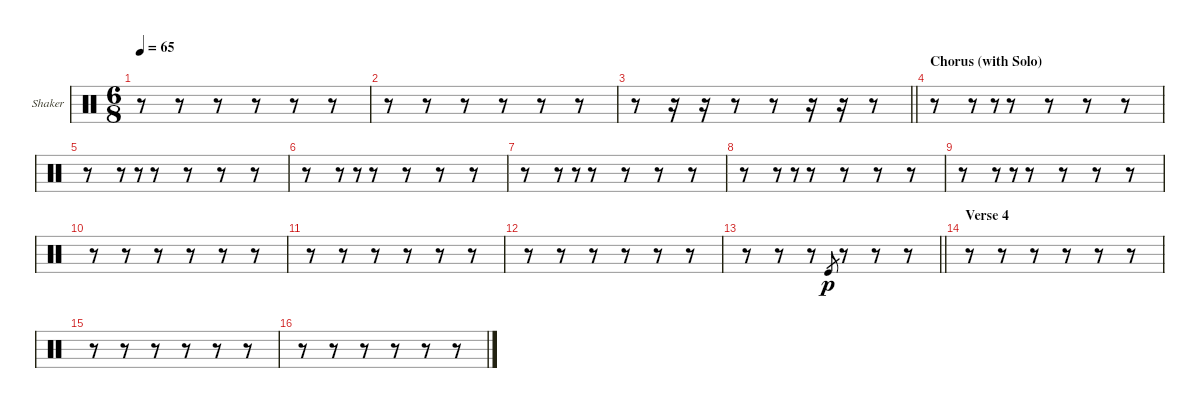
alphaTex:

\bracketExtendMode groupsimilarinstruments
\firstSystemTrackNameOrientation horizontal
\otherSystemsTrackNameOrientation horizontal
\track ("Shaker" "Shaker") {instrument percussion}
\staff {score}
\articulation defaults
\ts (6 8)
\tempo 65
\clef neutral
\ks c
r.8{dy p} r.8 r.8 r.8 r.8 r.8 |
r.8 r.8 r.8 r.8 r.8 r.8 |
\barLineRight lightlight
r.8 r.16 r.16 r.8 r.8 r.16 r.16 r.8 |
\section ("" "Chorus (with Solo)")
r.8 r.8 r.8{gr} r.8 r.8 r.8 r.8 |
r.8 r.8 r.8{gr} r.8 r.8 r.8 r.8 |
r.8 r.8 r.8{gr} r.8 r.8 r.8 r.8 |
r.8 r.8 r.8{gr} r.8 r.8 r.8 r.8 |
r.8 r.8 r.8{gr} r.8 r.8 r.8 r.8 |
r.8 r.8 r.8{gr} r.8 r.8 r.8 r.8 |
r.8 r.8 r.8 r.8 r.8 r.8 |
r.8 r.8 r.8 r.8 r.8 r.8 |
r.8 r.8 r.8 r.8 r.8 r.8 |
\barLineRight lightlight
r.8 r.8 r.8 "Kick (hit)".8{gr} r.8 r.8 r.8 |
\section ("" "Verse 4")
r.8 r.8 r.8 r.8 r.8 r.8 |
r.8 r.8 r.8 r.8 r.8 r.8 |
r.8 r.8 r.8 r.8 r.8 r.8
